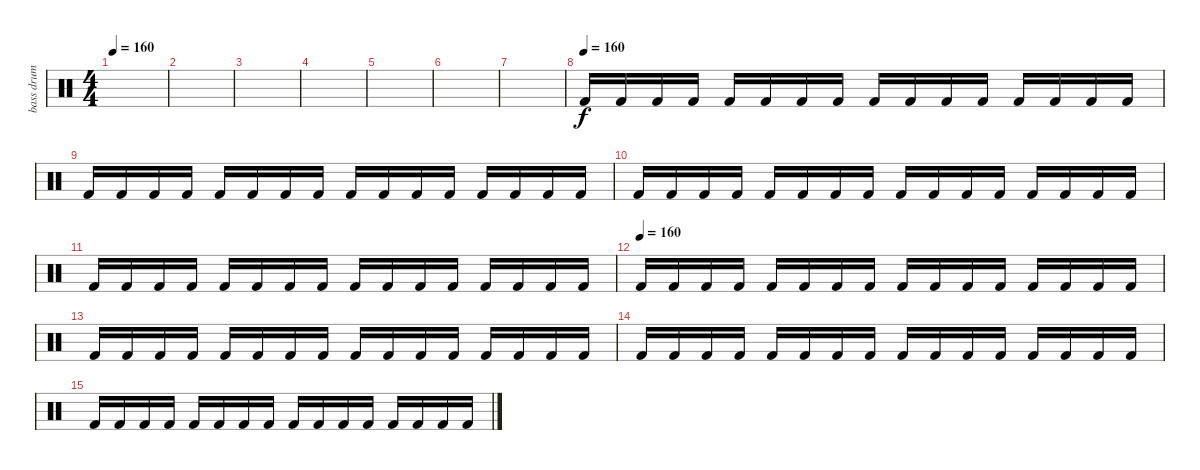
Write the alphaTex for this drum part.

\track ("bass drum" "bass drum") {instrument percussion}
\staff {score}
\articulation defaults
\ts (4 4)
\tempo 160
\clef neutral
\ks c
|
|
|
|
|
|
|
\tempo (160)
"Kick (hit) 2".16 "Kick (hit) 2".16 "Kick (hit) 2".16 "Kick (hit) 2".16 "Kick (hit) 2".16 "Kick (hit) 2".16 "Kick (hit) 2".16 "Kick (hit) 2".16 "Kick (hit) 2".16 "Kick (hit) 2".16 "Kick (hit) 2".16 "Kick (hit) 2".16 "Kick (hit) 2".16 "Kick (hit) 2".16 "Kick (hit) 2".16 "Kick (hit) 2".16 |
"Kick (hit) 2".16 "Kick (hit) 2".16 "Kick (hit) 2".16 "Kick (hit) 2".16 "Kick (hit) 2".16 "Kick (hit) 2".16 "Kick (hit) 2".16 "Kick (hit) 2".16 "Kick (hit) 2".16 "Kick (hit) 2".16 "Kick (hit) 2".16 "Kick (hit) 2".16 "Kick (hit) 2".16 "Kick (hit) 2".16 "Kick (hit) 2".16 "Kick (hit) 2".16 |
"Kick (hit) 2".16 "Kick (hit) 2".16 "Kick (hit) 2".16 "Kick (hit) 2".16 "Kick (hit) 2".16 "Kick (hit) 2".16 "Kick (hit) 2".16 "Kick (hit) 2".16 "Kick (hit) 2".16 "Kick (hit) 2".16 "Kick (hit) 2".16 "Kick (hit) 2".16 "Kick (hit) 2".16 "Kick (hit) 2".16 "Kick (hit) 2".16 "Kick (hit) 2".16 |
"Kick (hit) 2".16 "Kick (hit) 2".16 "Kick (hit) 2".16 "Kick (hit) 2".16 "Kick (hit) 2".16 "Kick (hit) 2".16 "Kick (hit) 2".16 "Kick (hit) 2".16 "Kick (hit) 2".16 "Kick (hit) 2".16 "Kick (hit) 2".16 "Kick (hit) 2".16 "Kick (hit) 2".16 "Kick (hit) 2".16 "Kick (hit) 2".16 "Kick (hit) 2".16 |
\tempo (160)
"Kick (hit) 2".16 "Kick (hit) 2".16 "Kick (hit) 2".16 "Kick (hit) 2".16 "Kick (hit) 2".16 "Kick (hit) 2".16 "Kick (hit) 2".16 "Kick (hit) 2".16 "Kick (hit) 2".16 "Kick (hit) 2".16 "Kick (hit) 2".16 "Kick (hit) 2".16 "Kick (hit) 2".16 "Kick (hit) 2".16 "Kick (hit) 2".16 "Kick (hit) 2".16 |
"Kick (hit) 2".16 "Kick (hit) 2".16 "Kick (hit) 2".16 "Kick (hit) 2".16 "Kick (hit) 2".16 "Kick (hit) 2".16 "Kick (hit) 2".16 "Kick (hit) 2".16 "Kick (hit) 2".16 "Kick (hit) 2".16 "Kick (hit) 2".16 "Kick (hit) 2".16 "Kick (hit) 2".16 "Kick (hit) 2".16 "Kick (hit) 2".16 "Kick (hit) 2".16 |
"Kick (hit) 2".16 "Kick (hit) 2".16 "Kick (hit) 2".16 "Kick (hit) 2".16 "Kick (hit) 2".16 "Kick (hit) 2".16 "Kick (hit) 2".16 "Kick (hit) 2".16 "Kick (hit) 2".16 "Kick (hit) 2".16 "Kick (hit) 2".16 "Kick (hit) 2".16 "Kick (hit) 2".16 "Kick (hit) 2".16 "Kick (hit) 2".16 "Kick (hit) 2".16 |
"Kick (hit) 2".16 "Kick (hit) 2".16 "Kick (hit) 2".16 "Kick (hit) 2".16 "Kick (hit) 2".16 "Kick (hit) 2".16 "Kick (hit) 2".16 "Kick (hit) 2".16 "Kick (hit) 2".16 "Kick (hit) 2".16 "Kick (hit) 2".16 "Kick (hit) 2".16 "Kick (hit) 2".16 "Kick (hit) 2".16 "Kick (hit) 2".16 "Kick (hit) 2".16
